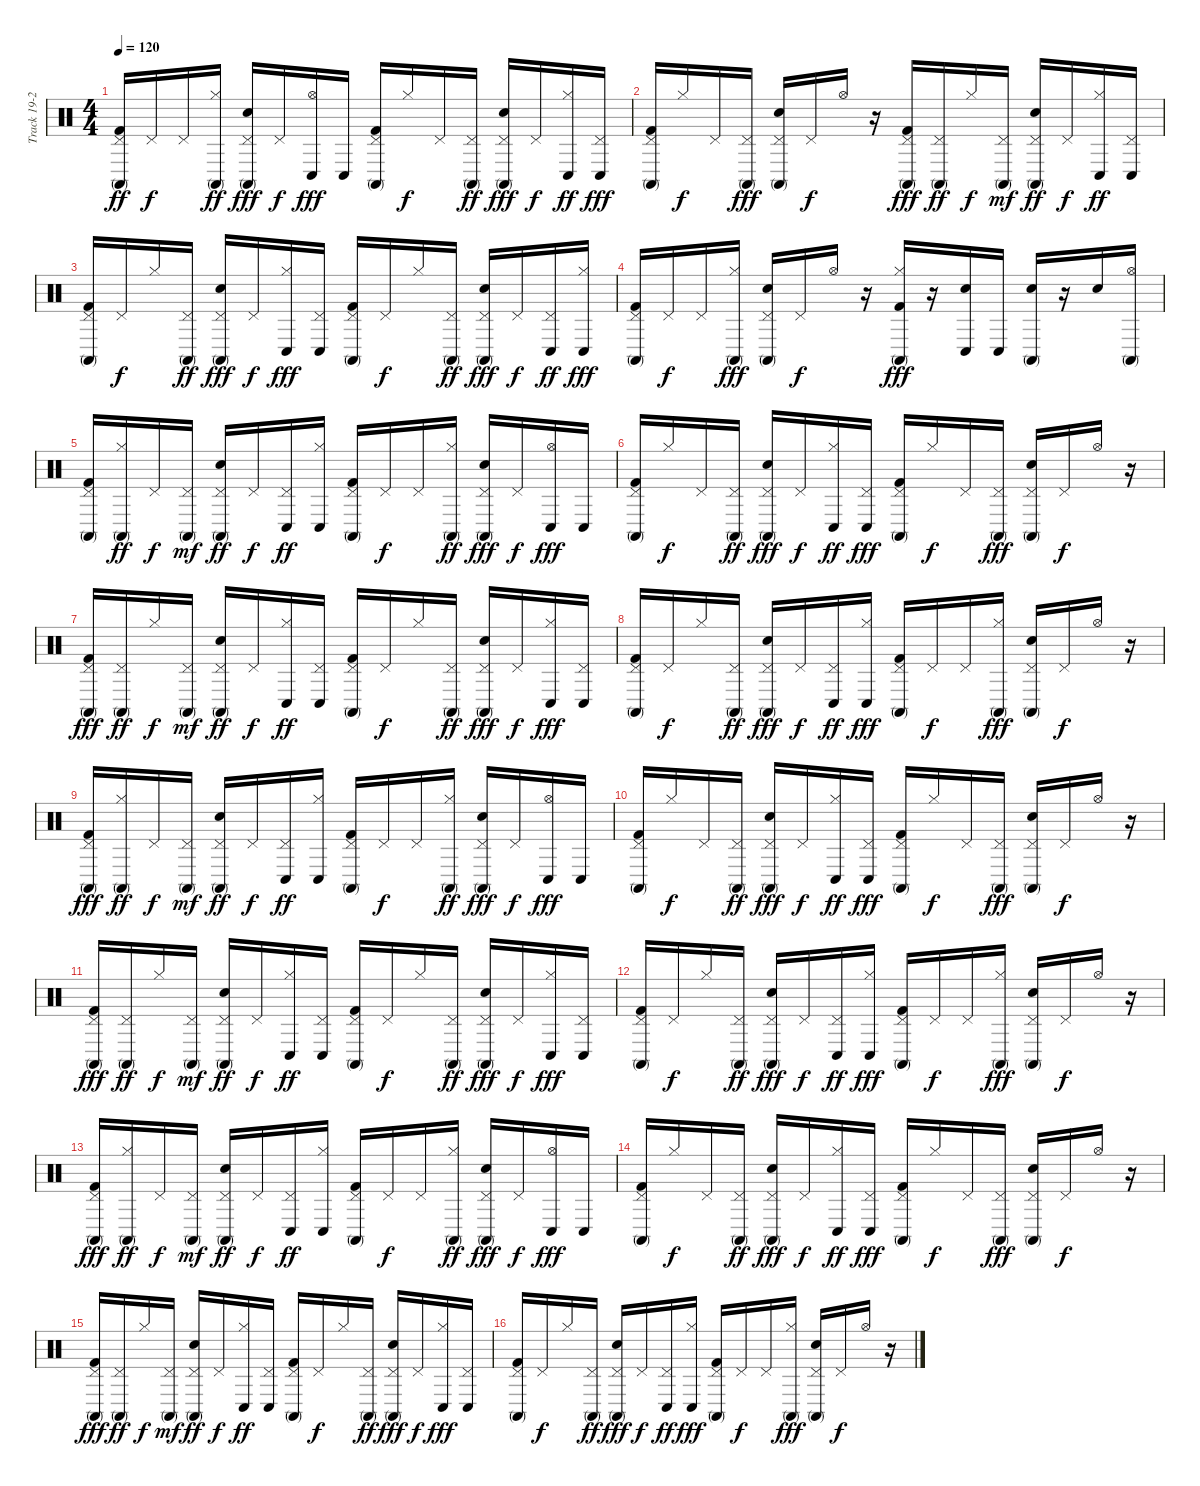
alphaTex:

\track ("Track 19-20-21" "Track 19-2") {instrument percussion}
\staff {score}
\articulation defaults
\ts (4 4)
\tempo 120
\clef neutral
\ks c
("Conga high (mute)" "Kick (hit) 2" "Pedal Hi-Hat (hit)").16{dy ff} "Pedal Hi-Hat (hit)".16{dy f} "Pedal Hi-Hat (hit)".16 ("Hi-Hat (closed)" "Conga high (mute)").16{dy ff} ("Conga high (mute)" "Snare (hit) 2" "Pedal Hi-Hat (hit)").16{dy fff} "Pedal Hi-Hat (hit)".16{dy f} ("Hi-Hat (open)" "Conga low (hit)").16{dy fff} "Conga low (hit)".16 ("Pedal Hi-Hat (hit)" "Conga high (mute)" "Kick (hit) 2").16 "Hi-Hat (closed)".16{dy f} "Pedal Hi-Hat (hit)".16 ("Pedal Hi-Hat (hit)" "Conga high (mute)").16{dy ff} ("Pedal Hi-Hat (hit)" "Conga high (mute)" "Snare (hit) 2").16{dy fff} "Pedal Hi-Hat (hit)".16{dy f} ("Hi-Hat (closed)" "Conga low (hit)").16{dy ff} ("Pedal Hi-Hat (hit)" "Conga low (hit)").16{dy fff} |
("Pedal Hi-Hat (hit)" "Conga high (mute)" "Kick (hit) 2").16 "Hi-Hat (closed)".16{dy f} "Pedal Hi-Hat (hit)".16 ("Pedal Hi-Hat (hit)" "Conga high (mute)").16{dy fff} ("Pedal Hi-Hat (hit)" "Conga high (mute)" "Snare (hit) 2").16 "Pedal Hi-Hat (hit)".16{dy f} "Hi-Hat (open)".16 r.16 ("Conga high (mute)" "Kick (hit) 2" "Pedal Hi-Hat (hit)").16{dy fff} ("Pedal Hi-Hat (hit)" "Conga high (mute)").16{dy ff} "Hi-Hat (closed)".16{dy f} ("Conga high (mute)" "Pedal Hi-Hat (hit)").16{dy mf} ("Conga high (mute)" "Snare (hit) 2" "Pedal Hi-Hat (hit)").16{dy ff} "Pedal Hi-Hat (hit)".16{dy f} ("Hi-Hat (closed)" "Conga low (hit)").16{dy ff} ("Pedal Hi-Hat (hit)" "Conga low (hit)").16 |
("Conga high (mute)" "Kick (hit) 2" "Pedal Hi-Hat (hit)").16 "Pedal Hi-Hat (hit)".16{dy f} "Hi-Hat (closed)".16 ("Pedal Hi-Hat (hit)" "Conga high (mute)").16{dy ff} ("Conga high (mute)" "Snare (hit) 2" "Pedal Hi-Hat (hit)").16{dy fff} "Pedal Hi-Hat (hit)".16{dy f} ("Hi-Hat (closed)" "Conga low (hit)").16{dy fff} ("Pedal Hi-Hat (hit)" "Conga low (hit)").16 ("Pedal Hi-Hat (hit)" "Conga high (mute)" "Kick (hit) 2").16 "Pedal Hi-Hat (hit)".16{dy f} "Hi-Hat (closed)".16 ("Pedal Hi-Hat (hit)" "Conga high (mute)").16{dy ff} ("Pedal Hi-Hat (hit)" "Conga high (mute)" "Snare (hit) 2").16{dy fff} "Pedal Hi-Hat (hit)".16{dy f} ("Pedal Hi-Hat (hit)" "Conga low (hit)").16{dy ff} ("Hi-Hat (closed)" "Conga low (hit)").16{dy fff} |
("Pedal Hi-Hat (hit)" "Conga high (mute)" "Kick (hit) 2").16 "Pedal Hi-Hat (hit)".16{dy f} "Pedal Hi-Hat (hit)".16 ("Hi-Hat (closed)" "Conga high (mute)").16{dy fff} ("Pedal Hi-Hat (hit)" "Conga high (mute)" "Snare (hit) 2").16 "Pedal Hi-Hat (hit)".16{dy f} "Hi-Hat (open)".16 r.16 ("Hi-Hat (closed)" "Conga high (mute)" "Kick (hit) 2").16{dy fff} r.16 ("Conga low (hit)" "Snare (hit) 2").16 "Conga low (hit)".16 ("Conga high (mute)" "Snare (hit) 2").16 r.16 "Snare (hit) 2".16 ("Hi-Hat (open)" "Conga high (mute)").16 |
("Conga high (mute)" "Kick (hit) 2" "Pedal Hi-Hat (hit)").16 ("Hi-Hat (closed)" "Conga high (mute)").16{dy ff} "Pedal Hi-Hat (hit)".16{dy f} ("Conga high (mute)" "Pedal Hi-Hat (hit)").16{dy mf} ("Conga high (mute)" "Snare (hit) 2" "Pedal Hi-Hat (hit)").16{dy ff} "Pedal Hi-Hat (hit)".16{dy f} ("Conga low (hit)" "Pedal Hi-Hat (hit)").16{dy ff} ("Hi-Hat (closed)" "Conga low (hit)").16 ("Conga high (mute)" "Kick (hit) 2" "Pedal Hi-Hat (hit)").16 "Pedal Hi-Hat (hit)".16{dy f} "Pedal Hi-Hat (hit)".16 ("Hi-Hat (closed)" "Conga high (mute)").16{dy ff} ("Conga high (mute)" "Snare (hit) 2" "Pedal Hi-Hat (hit)").16{dy fff} "Pedal Hi-Hat (hit)".16{dy f} ("Hi-Hat (open)" "Conga low (hit)").16{dy fff} "Conga low (hit)".16 |
("Pedal Hi-Hat (hit)" "Conga high (mute)" "Kick (hit) 2").16 "Hi-Hat (closed)".16{dy f} "Pedal Hi-Hat (hit)".16 ("Pedal Hi-Hat (hit)" "Conga high (mute)").16{dy ff} ("Pedal Hi-Hat (hit)" "Conga high (mute)" "Snare (hit) 2").16{dy fff} "Pedal Hi-Hat (hit)".16{dy f} ("Hi-Hat (closed)" "Conga low (hit)").16{dy ff} ("Pedal Hi-Hat (hit)" "Conga low (hit)").16{dy fff} ("Pedal Hi-Hat (hit)" "Conga high (mute)" "Kick (hit) 2").16 "Hi-Hat (closed)".16{dy f} "Pedal Hi-Hat (hit)".16 ("Pedal Hi-Hat (hit)" "Conga high (mute)").16{dy fff} ("Pedal Hi-Hat (hit)" "Conga high (mute)" "Snare (hit) 2").16 "Pedal Hi-Hat (hit)".16{dy f} "Hi-Hat (open)".16 r.16 |
("Conga high (mute)" "Kick (hit) 2" "Pedal Hi-Hat (hit)").16{dy fff} ("Pedal Hi-Hat (hit)" "Conga high (mute)").16{dy ff} "Hi-Hat (closed)".16{dy f} ("Conga high (mute)" "Pedal Hi-Hat (hit)").16{dy mf} ("Conga high (mute)" "Snare (hit) 2" "Pedal Hi-Hat (hit)").16{dy ff} "Pedal Hi-Hat (hit)".16{dy f} ("Hi-Hat (closed)" "Conga low (hit)").16{dy ff} ("Pedal Hi-Hat (hit)" "Conga low (hit)").16 ("Conga high (mute)" "Kick (hit) 2" "Pedal Hi-Hat (hit)").16 "Pedal Hi-Hat (hit)".16{dy f} "Hi-Hat (closed)".16 ("Pedal Hi-Hat (hit)" "Conga high (mute)").16{dy ff} ("Conga high (mute)" "Snare (hit) 2" "Pedal Hi-Hat (hit)").16{dy fff} "Pedal Hi-Hat (hit)".16{dy f} ("Hi-Hat (closed)" "Conga low (hit)").16{dy fff} ("Pedal Hi-Hat (hit)" "Conga low (hit)").16 |
("Pedal Hi-Hat (hit)" "Conga high (mute)" "Kick (hit) 2").16 "Pedal Hi-Hat (hit)".16{dy f} "Hi-Hat (closed)".16 ("Pedal Hi-Hat (hit)" "Conga high (mute)").16{dy ff} ("Pedal Hi-Hat (hit)" "Conga high (mute)" "Snare (hit) 2").16{dy fff} "Pedal Hi-Hat (hit)".16{dy f} ("Pedal Hi-Hat (hit)" "Conga low (hit)").16{dy ff} ("Hi-Hat (closed)" "Conga low (hit)").16{dy fff} ("Pedal Hi-Hat (hit)" "Conga high (mute)" "Kick (hit) 2").16 "Pedal Hi-Hat (hit)".16{dy f} "Pedal Hi-Hat (hit)".16 ("Hi-Hat (closed)" "Conga high (mute)").16{dy fff} ("Pedal Hi-Hat (hit)" "Conga high (mute)" "Snare (hit) 2").16 "Pedal Hi-Hat (hit)".16{dy f} "Hi-Hat (open)".16 r.16 |
("Conga high (mute)" "Kick (hit) 2" "Pedal Hi-Hat (hit)").16{dy fff} ("Hi-Hat (closed)" "Conga high (mute)").16{dy ff} "Pedal Hi-Hat (hit)".16{dy f} ("Conga high (mute)" "Pedal Hi-Hat (hit)").16{dy mf} ("Conga high (mute)" "Snare (hit) 2" "Pedal Hi-Hat (hit)").16{dy ff} "Pedal Hi-Hat (hit)".16{dy f} ("Conga low (hit)" "Pedal Hi-Hat (hit)").16{dy ff} ("Hi-Hat (closed)" "Conga low (hit)").16 ("Conga high (mute)" "Kick (hit) 2" "Pedal Hi-Hat (hit)").16 "Pedal Hi-Hat (hit)".16{dy f} "Pedal Hi-Hat (hit)".16 ("Hi-Hat (closed)" "Conga high (mute)").16{dy ff} ("Conga high (mute)" "Snare (hit) 2" "Pedal Hi-Hat (hit)").16{dy fff} "Pedal Hi-Hat (hit)".16{dy f} ("Hi-Hat (open)" "Conga low (hit)").16{dy fff} "Conga low (hit)".16 |
("Pedal Hi-Hat (hit)" "Conga high (mute)" "Kick (hit) 2").16 "Hi-Hat (closed)".16{dy f} "Pedal Hi-Hat (hit)".16 ("Pedal Hi-Hat (hit)" "Conga high (mute)").16{dy ff} ("Pedal Hi-Hat (hit)" "Conga high (mute)" "Snare (hit) 2").16{dy fff} "Pedal Hi-Hat (hit)".16{dy f} ("Hi-Hat (closed)" "Conga low (hit)").16{dy ff} ("Pedal Hi-Hat (hit)" "Conga low (hit)").16{dy fff} ("Pedal Hi-Hat (hit)" "Conga high (mute)" "Kick (hit) 2").16 "Hi-Hat (closed)".16{dy f} "Pedal Hi-Hat (hit)".16 ("Pedal Hi-Hat (hit)" "Conga high (mute)").16{dy fff} ("Pedal Hi-Hat (hit)" "Conga high (mute)" "Snare (hit) 2").16 "Pedal Hi-Hat (hit)".16{dy f} "Hi-Hat (open)".16 r.16 |
("Conga high (mute)" "Kick (hit) 2" "Pedal Hi-Hat (hit)").16{dy fff} ("Pedal Hi-Hat (hit)" "Conga high (mute)").16{dy ff} "Hi-Hat (closed)".16{dy f} ("Conga high (mute)" "Pedal Hi-Hat (hit)").16{dy mf} ("Conga high (mute)" "Snare (hit) 2" "Pedal Hi-Hat (hit)").16{dy ff} "Pedal Hi-Hat (hit)".16{dy f} ("Hi-Hat (closed)" "Conga low (hit)").16{dy ff} ("Pedal Hi-Hat (hit)" "Conga low (hit)").16 ("Conga high (mute)" "Kick (hit) 2" "Pedal Hi-Hat (hit)").16 "Pedal Hi-Hat (hit)".16{dy f} "Hi-Hat (closed)".16 ("Pedal Hi-Hat (hit)" "Conga high (mute)").16{dy ff} ("Conga high (mute)" "Snare (hit) 2" "Pedal Hi-Hat (hit)").16{dy fff} "Pedal Hi-Hat (hit)".16{dy f} ("Hi-Hat (closed)" "Conga low (hit)").16{dy fff} ("Pedal Hi-Hat (hit)" "Conga low (hit)").16 |
("Pedal Hi-Hat (hit)" "Conga high (mute)" "Kick (hit) 2").16 "Pedal Hi-Hat (hit)".16{dy f} "Hi-Hat (closed)".16 ("Pedal Hi-Hat (hit)" "Conga high (mute)").16{dy ff} ("Pedal Hi-Hat (hit)" "Conga high (mute)" "Snare (hit) 2").16{dy fff} "Pedal Hi-Hat (hit)".16{dy f} ("Pedal Hi-Hat (hit)" "Conga low (hit)").16{dy ff} ("Hi-Hat (closed)" "Conga low (hit)").16{dy fff} ("Pedal Hi-Hat (hit)" "Conga high (mute)" "Kick (hit) 2").16 "Pedal Hi-Hat (hit)".16{dy f} "Pedal Hi-Hat (hit)".16 ("Hi-Hat (closed)" "Conga high (mute)").16{dy fff} ("Pedal Hi-Hat (hit)" "Conga high (mute)" "Snare (hit) 2").16 "Pedal Hi-Hat (hit)".16{dy f} "Hi-Hat (open)".16 r.16 |
("Conga high (mute)" "Kick (hit) 2" "Pedal Hi-Hat (hit)").16{dy fff} ("Hi-Hat (closed)" "Conga high (mute)").16{dy ff} "Pedal Hi-Hat (hit)".16{dy f} ("Conga high (mute)" "Pedal Hi-Hat (hit)").16{dy mf} ("Conga high (mute)" "Snare (hit) 2" "Pedal Hi-Hat (hit)").16{dy ff} "Pedal Hi-Hat (hit)".16{dy f} ("Conga low (hit)" "Pedal Hi-Hat (hit)").16{dy ff} ("Hi-Hat (closed)" "Conga low (hit)").16 ("Conga high (mute)" "Kick (hit) 2" "Pedal Hi-Hat (hit)").16 "Pedal Hi-Hat (hit)".16{dy f} "Pedal Hi-Hat (hit)".16 ("Hi-Hat (closed)" "Conga high (mute)").16{dy ff} ("Conga high (mute)" "Snare (hit) 2" "Pedal Hi-Hat (hit)").16{dy fff} "Pedal Hi-Hat (hit)".16{dy f} ("Hi-Hat (open)" "Conga low (hit)").16{dy fff} "Conga low (hit)".16 |
("Pedal Hi-Hat (hit)" "Conga high (mute)" "Kick (hit) 2").16 "Hi-Hat (closed)".16{dy f} "Pedal Hi-Hat (hit)".16 ("Pedal Hi-Hat (hit)" "Conga high (mute)").16{dy ff} ("Pedal Hi-Hat (hit)" "Conga high (mute)" "Snare (hit) 2").16{dy fff} "Pedal Hi-Hat (hit)".16{dy f} ("Hi-Hat (closed)" "Conga low (hit)").16{dy ff} ("Pedal Hi-Hat (hit)" "Conga low (hit)").16{dy fff} ("Pedal Hi-Hat (hit)" "Conga high (mute)" "Kick (hit) 2").16 "Hi-Hat (closed)".16{dy f} "Pedal Hi-Hat (hit)".16 ("Pedal Hi-Hat (hit)" "Conga high (mute)").16{dy fff} ("Pedal Hi-Hat (hit)" "Conga high (mute)" "Snare (hit) 2").16 "Pedal Hi-Hat (hit)".16{dy f} "Hi-Hat (open)".16 r.16 |
("Conga high (mute)" "Kick (hit) 2" "Pedal Hi-Hat (hit)").16{dy fff} ("Pedal Hi-Hat (hit)" "Conga high (mute)").16{dy ff} "Hi-Hat (closed)".16{dy f} ("Conga high (mute)" "Pedal Hi-Hat (hit)").16{dy mf} ("Conga high (mute)" "Snare (hit) 2" "Pedal Hi-Hat (hit)").16{dy ff} "Pedal Hi-Hat (hit)".16{dy f} ("Hi-Hat (closed)" "Conga low (hit)").16{dy ff} ("Pedal Hi-Hat (hit)" "Conga low (hit)").16 ("Conga high (mute)" "Kick (hit) 2" "Pedal Hi-Hat (hit)").16 "Pedal Hi-Hat (hit)".16{dy f} "Hi-Hat (closed)".16 ("Pedal Hi-Hat (hit)" "Conga high (mute)").16{dy ff} ("Conga high (mute)" "Snare (hit) 2" "Pedal Hi-Hat (hit)").16{dy fff} "Pedal Hi-Hat (hit)".16{dy f} ("Hi-Hat (closed)" "Conga low (hit)").16{dy fff} ("Pedal Hi-Hat (hit)" "Conga low (hit)").16 |
("Pedal Hi-Hat (hit)" "Conga high (mute)" "Kick (hit) 2").16 "Pedal Hi-Hat (hit)".16{dy f} "Hi-Hat (closed)".16 ("Pedal Hi-Hat (hit)" "Conga high (mute)").16{dy ff} ("Pedal Hi-Hat (hit)" "Conga high (mute)" "Snare (hit) 2").16{dy fff} "Pedal Hi-Hat (hit)".16{dy f} ("Pedal Hi-Hat (hit)" "Conga low (hit)").16{dy ff} ("Hi-Hat (closed)" "Conga low (hit)").16{dy fff} ("Pedal Hi-Hat (hit)" "Conga high (mute)" "Kick (hit) 2").16 "Pedal Hi-Hat (hit)".16{dy f} "Pedal Hi-Hat (hit)".16 ("Hi-Hat (closed)" "Conga high (mute)").16{dy fff} ("Pedal Hi-Hat (hit)" "Conga high (mute)" "Snare (hit) 2").16 "Pedal Hi-Hat (hit)".16{dy f} "Hi-Hat (open)".16 r.16
